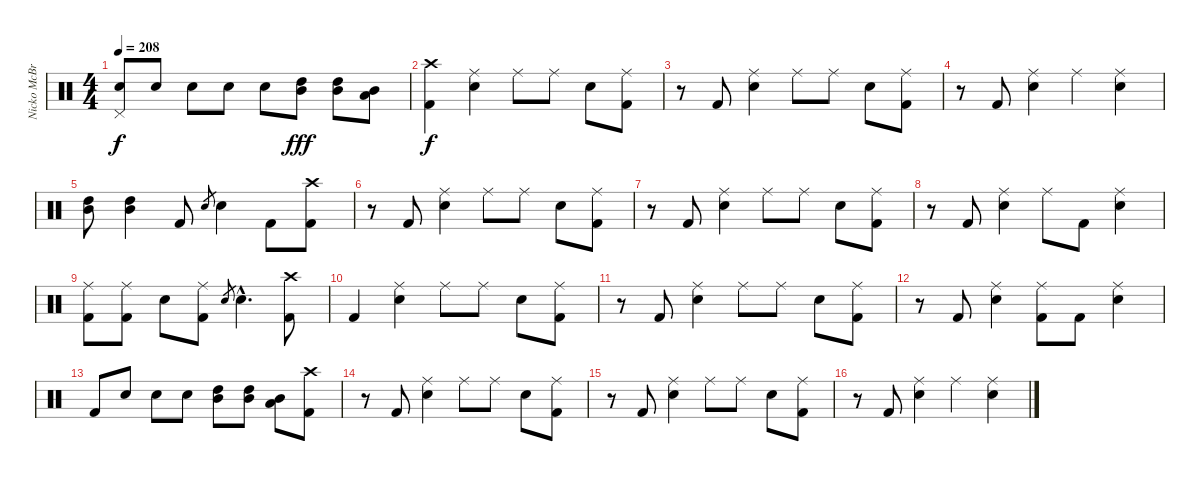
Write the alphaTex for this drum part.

\track ("Nicko McBrain" "Nicko McBr") {instrument percussion}
\staff {score}
\articulation defaults
\ts (4 4)
\tempo 208
\clef neutral
\ks c
("Pedal Hi-Hat (hit)" "Electric Snare (hit)").8{dy f} "Electric Snare (hit)".8 "Electric Snare (hit)".8 "Electric Snare (hit)".8 "Electric Snare (hit)".8 ("High Tom (hit)" "Mid Tom (hit)").8{dy fff} ("High Tom (hit)" "Mid Tom (hit)").8 ("Mid Tom (hit)" "Low Tom (hit)").8 |
("Crash high (hit)" "Kick (hit) 2").4{dy f} ("Ride (middle)" "Electric Snare (hit)").4 "Ride (middle)".8 "Ride (middle)".8 "Electric Snare (hit)".8 ("Ride (middle)" "Kick (hit) 2").8 |
r.8 "Kick (hit) 2".8 ("Ride (middle)" "Electric Snare (hit)").4 "Ride (middle)".8 "Ride (middle)".8 "Electric Snare (hit)".8 ("Ride (middle)" "Kick (hit) 2").8 |
r.8 "Kick (hit) 2".8 ("Ride (middle)" "Electric Snare (hit)").4 "Ride (middle)".4 ("Ride (middle)" "Electric Snare (hit)").4 |
("High Tom (hit)" "Mid Tom (hit)").8 ("High Tom (hit)" "Mid Tom (hit)").4 "Kick (hit) 2".8 "Electric Snare (hit)".8{gr} "Electric Snare (hit)".4 "Kick (hit) 2".8 ("Crash high (hit)" "Kick (hit) 2").8 |
r.8 "Kick (hit) 2".8 ("Ride (middle)" "Electric Snare (hit)").4 "Ride (middle)".8 "Ride (middle)".8 "Electric Snare (hit)".8 ("Ride (middle)" "Kick (hit) 2").8 |
r.8 "Kick (hit) 2".8 ("Ride (middle)" "Electric Snare (hit)").4 "Ride (middle)".8 "Ride (middle)".8 "Electric Snare (hit)".8 ("Ride (middle)" "Kick (hit) 2").8 |
r.8 "Kick (hit) 2".8 ("Ride (middle)" "Electric Snare (hit)").4 "Ride (middle)".8 "Kick (hit) 2".8 ("Ride (middle)" "Electric Snare (hit)").4 |
("Ride (middle)" "Kick (hit) 2").8 ("Ride (middle)" "Kick (hit) 2").8 "Electric Snare (hit)".8 ("Ride (middle)" "Kick (hit) 2").8 "Electric Snare (hit)".8{gr} "Electric Snare (hit)"{hac}.4{d} ("Crash high (hit)" "Kick (hit) 2").8 |
"Kick (hit) 2".4 ("Ride (middle)" "Electric Snare (hit)").4 "Ride (middle)".8 "Ride (middle)".8 "Electric Snare (hit)".8 ("Ride (middle)" "Kick (hit) 2").8 |
r.8 "Kick (hit) 2".8 ("Ride (middle)" "Electric Snare (hit)").4 "Ride (middle)".8 "Ride (middle)".8 "Electric Snare (hit)".8 ("Ride (middle)" "Kick (hit) 2").8 |
r.8 "Kick (hit) 2".8 ("Ride (middle)" "Electric Snare (hit)").4 ("Ride (middle)" "Kick (hit) 2").8 "Kick (hit) 2".8 ("Ride (middle)" "Electric Snare (hit)").4 |
"Kick (hit) 2".8 "Electric Snare (hit)".8 "Electric Snare (hit)".8 "Electric Snare (hit)".8 ("High Tom (hit)" "Mid Tom (hit)").8 ("High Tom (hit)" "Mid Tom (hit)").8 ("Mid Tom (hit)" "Low Tom (hit)").8 ("Crash high (hit)" "Kick (hit) 2").8 |
r.8 "Kick (hit) 2".8 ("Ride (middle)" "Electric Snare (hit)").4 "Ride (middle)".8 "Ride (middle)".8 "Electric Snare (hit)".8 ("Ride (middle)" "Kick (hit) 2").8 |
r.8 "Kick (hit) 2".8 ("Ride (middle)" "Electric Snare (hit)").4 "Ride (middle)".8 "Ride (middle)".8 "Electric Snare (hit)".8 ("Ride (middle)" "Kick (hit) 2").8 |
r.8 "Kick (hit) 2".8 ("Ride (middle)" "Electric Snare (hit)").4 "Ride (middle)".4 ("Ride (middle)" "Electric Snare (hit)").4
